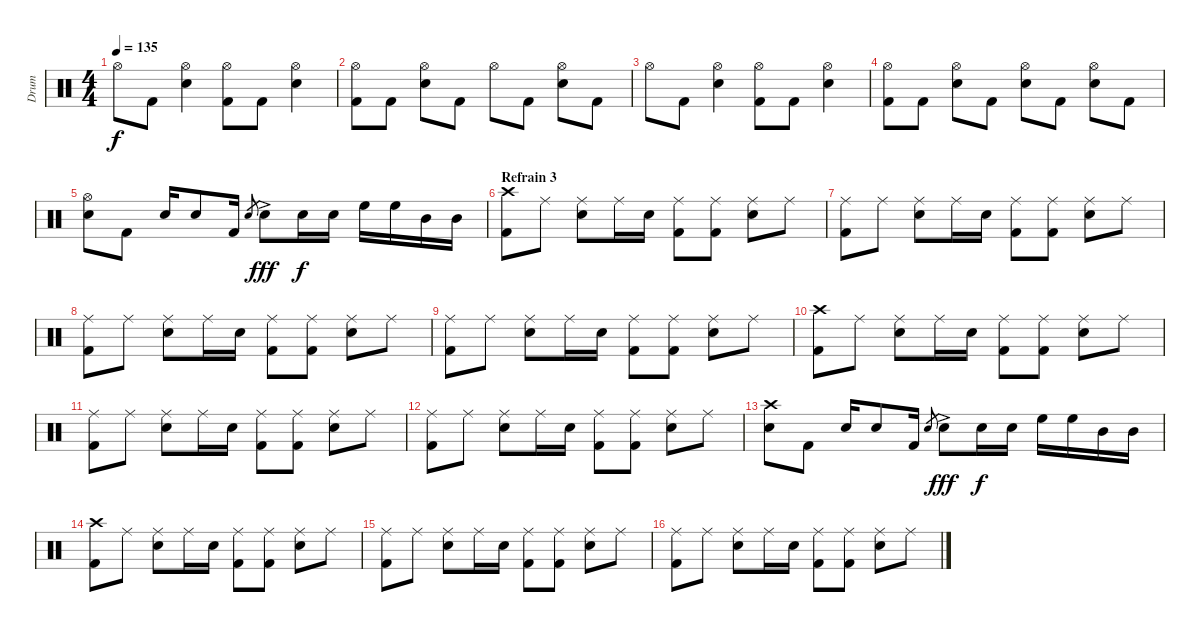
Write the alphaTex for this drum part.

\track ("Drum" "Drum") {instrument percussion}
\staff {score}
\articulation defaults
\ts (4 4)
\tempo 135
\clef neutral
\ks c "Hi-Hat (open)".8{dy f} "Kick (hit) 2".8
("Hi-Hat (open)" "Snare (hit) 2").4 ("Hi-Hat (open)" "Kick (hit) 2").8 "Kick (hit) 2".8 ("Hi-Hat (open)" "Snare (hit) 2").4 |
("Hi-Hat (open)" "Kick (hit) 2").8 "Kick (hit) 2".8 ("Hi-Hat (open)" "Snare (hit) 2").8 "Kick (hit) 2".8 "Hi-Hat (open)".8 "Kick (hit) 2".8 ("Hi-Hat (open)" "Snare (hit) 2").8 "Kick (hit) 2".8 |
"Hi-Hat (open)".8 "Kick (hit) 2".8 ("Hi-Hat (open)" "Snare (hit) 2").4 ("Hi-Hat (open)" "Kick (hit) 2").8 "Kick (hit) 2".8 ("Hi-Hat (open)" "Snare (hit) 2").4 |
("Hi-Hat (open)" "Kick (hit) 2").8 "Kick (hit) 2".8 ("Hi-Hat (open)" "Snare (hit) 2").8 "Kick (hit) 2".8 ("Hi-Hat (open)" "Snare (hit) 2").8 "Kick (hit) 2".8 ("Hi-Hat (open)" "Snare (hit) 2").8 "Kick (hit) 2".8 |
("Hi-Hat (open)" "Snare (hit) 2").8 "Kick (hit) 2".8 "Snare (hit) 2".16 "Snare (hit) 2".8 "Kick (hit) 2".16 "Snare (hit) 2".8{gr} "Snare (hit) 2"{ac}.8{dy fff} "Snare (hit) 2".16{dy f} "Snare (hit) 2".16 "High Floor Tom (hit)".16 "High Floor Tom (hit)".16 "Mid Tom (hit)".16 "Mid Tom (hit)".16 |
\section ("" "Refrain 3")
("Crash high (hit)" "Kick (hit) 2").8 "Ride (middle)".8 ("Ride (middle)" "Snare (hit) 2").8 "Ride (middle)".16 "Snare (hit) 2".16 ("Ride (middle)" "Kick (hit) 2").8 ("Ride (middle)" "Kick (hit) 2").8 ("Ride (middle)" "Snare (hit) 2").8 "Ride (middle)".8 |
("Ride (middle)" "Kick (hit) 2").8 "Ride (middle)".8 ("Ride (middle)" "Snare (hit) 2").8 "Ride (middle)".16 "Snare (hit) 2".16 ("Ride (middle)" "Kick (hit) 2").8 ("Ride (middle)" "Kick (hit) 2").8 ("Ride (middle)" "Snare (hit) 2").8 "Ride (middle)".8 |
("Ride (middle)" "Kick (hit) 2").8 "Ride (middle)".8 ("Ride (middle)" "Snare (hit) 2").8 "Ride (middle)".16 "Snare (hit) 2".16 ("Ride (middle)" "Kick (hit) 2").8 ("Ride (middle)" "Kick (hit) 2").8 ("Ride (middle)" "Snare (hit) 2").8 "Ride (middle)".8 |
("Ride (middle)" "Kick (hit) 2").8 "Ride (middle)".8 ("Ride (middle)" "Snare (hit) 2").8 "Ride (middle)".16 "Snare (hit) 2".16 ("Ride (middle)" "Kick (hit) 2").8 ("Ride (middle)" "Kick (hit) 2").8 ("Ride (middle)" "Snare (hit) 2").8 "Ride (middle)".8 |
("Crash high (hit)" "Kick (hit) 2").8 "Ride (middle)".8 ("Ride (middle)" "Snare (hit) 2").8 "Ride (middle)".16 "Snare (hit) 2".16 ("Ride (middle)" "Kick (hit) 2").8 ("Ride (middle)" "Kick (hit) 2").8 ("Ride (middle)" "Snare (hit) 2").8 "Ride (middle)".8 |
("Ride (middle)" "Kick (hit) 2").8 "Ride (middle)".8 ("Ride (middle)" "Snare (hit) 2").8 "Ride (middle)".16 "Snare (hit) 2".16 ("Ride (middle)" "Kick (hit) 2").8 ("Ride (middle)" "Kick (hit) 2").8 ("Ride (middle)" "Snare (hit) 2").8 "Ride (middle)".8 |
("Ride (middle)" "Kick (hit) 2").8 "Ride (middle)".8 ("Ride (middle)" "Snare (hit) 2").8 "Ride (middle)".16 "Snare (hit) 2".16 ("Ride (middle)" "Kick (hit) 2").8 ("Ride (middle)" "Kick (hit) 2").8 ("Ride (middle)" "Snare (hit) 2").8 "Ride (middle)".8 |
("Crash high (hit)" "Snare (hit) 2").8 "Kick (hit) 2".8 "Snare (hit) 2".16 "Snare (hit) 2".8 "Kick (hit) 2".16 "Snare (hit) 2".8{gr} "Snare (hit) 2"{ac}.8{dy fff} "Snare (hit) 2".16{dy f} "Snare (hit) 2".16 "High Floor Tom (hit)".16 "High Floor Tom (hit)".16 "Mid Tom (hit)".16 "Mid Tom (hit)".16 |
("Crash high (hit)" "Kick (hit) 2").8 "Ride (middle)".8 ("Ride (middle)" "Snare (hit) 2").8 "Ride (middle)".16 "Snare (hit) 2".16 ("Ride (middle)" "Kick (hit) 2").8 ("Ride (middle)" "Kick (hit) 2").8 ("Ride (middle)" "Snare (hit) 2").8 "Ride (middle)".8 |
("Ride (middle)" "Kick (hit) 2").8 "Ride (middle)".8 ("Ride (middle)" "Snare (hit) 2").8 "Ride (middle)".16 "Snare (hit) 2".16 ("Ride (middle)" "Kick (hit) 2").8 ("Ride (middle)" "Kick (hit) 2").8 ("Ride (middle)" "Snare (hit) 2").8 "Ride (middle)".8 |
("Ride (middle)" "Kick (hit) 2").8 "Ride (middle)".8 ("Ride (middle)" "Snare (hit) 2").8 "Ride (middle)".16 "Snare (hit) 2".16 ("Ride (middle)" "Kick (hit) 2").8 ("Ride (middle)" "Kick (hit) 2").8 ("Ride (middle)" "Snare (hit) 2").8 "Ride (middle)".8
